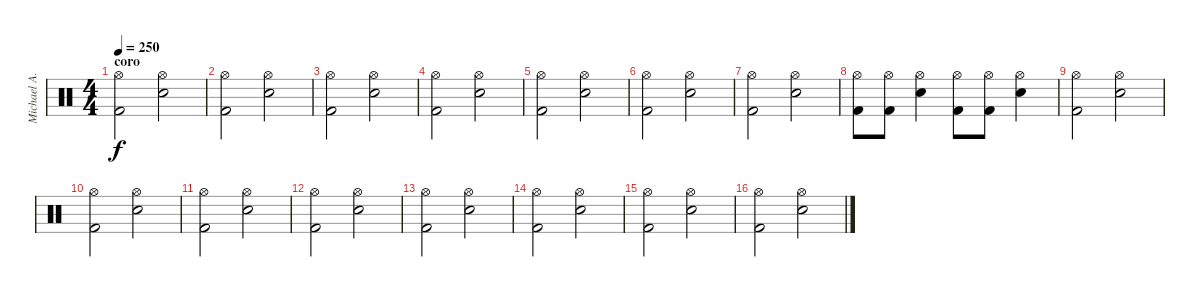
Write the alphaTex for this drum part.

\track ("Michael A." "Michael A.") {instrument percussion}
\staff {score}
\articulation defaults
\ts (4 4)
\section ("" "coro")
\tempo 250
\clef neutral
\ks c
("Hi-Hat (open)" "Kick (hit) 2").2{dy f} ("Hi-Hat (open)" "Electric Snare (hit)").2 |
("Hi-Hat (open)" "Kick (hit) 2").2 ("Hi-Hat (open)" "Electric Snare (hit)").2 |
("Hi-Hat (open)" "Kick (hit) 2").2 ("Hi-Hat (open)" "Electric Snare (hit)").2 |
("Hi-Hat (open)" "Kick (hit) 2").2 ("Hi-Hat (open)" "Electric Snare (hit)").2 |
("Hi-Hat (open)" "Kick (hit) 2").2 ("Hi-Hat (open)" "Electric Snare (hit)").2 |
("Hi-Hat (open)" "Kick (hit) 2").2 ("Hi-Hat (open)" "Electric Snare (hit)").2 |
("Hi-Hat (open)" "Kick (hit) 2").2 ("Hi-Hat (open)" "Electric Snare (hit)").2 |
("Hi-Hat (open)" "Kick (hit) 2").8 ("Hi-Hat (open)" "Kick (hit) 2").8 ("Hi-Hat (open)" "Electric Snare (hit)").4 ("Hi-Hat (open)" "Kick (hit) 2").8 ("Hi-Hat (open)" "Kick (hit) 2").8 ("Hi-Hat (open)" "Electric Snare (hit)").4 |
("Hi-Hat (open)" "Kick (hit) 2").2 ("Hi-Hat (open)" "Electric Snare (hit)").2 |
("Hi-Hat (open)" "Kick (hit) 2").2 ("Hi-Hat (open)" "Electric Snare (hit)").2 |
("Hi-Hat (open)" "Kick (hit) 2").2 ("Hi-Hat (open)" "Electric Snare (hit)").2 |
("Hi-Hat (open)" "Kick (hit) 2").2 ("Hi-Hat (open)" "Electric Snare (hit)").2 |
("Hi-Hat (open)" "Kick (hit) 2").2 ("Hi-Hat (open)" "Electric Snare (hit)").2 |
("Hi-Hat (open)" "Kick (hit) 2").2 ("Hi-Hat (open)" "Electric Snare (hit)").2 |
("Hi-Hat (open)" "Kick (hit) 2").2 ("Hi-Hat (open)" "Electric Snare (hit)").2 |
("Hi-Hat (open)" "Kick (hit) 2").2 ("Hi-Hat (open)" "Electric Snare (hit)").2
